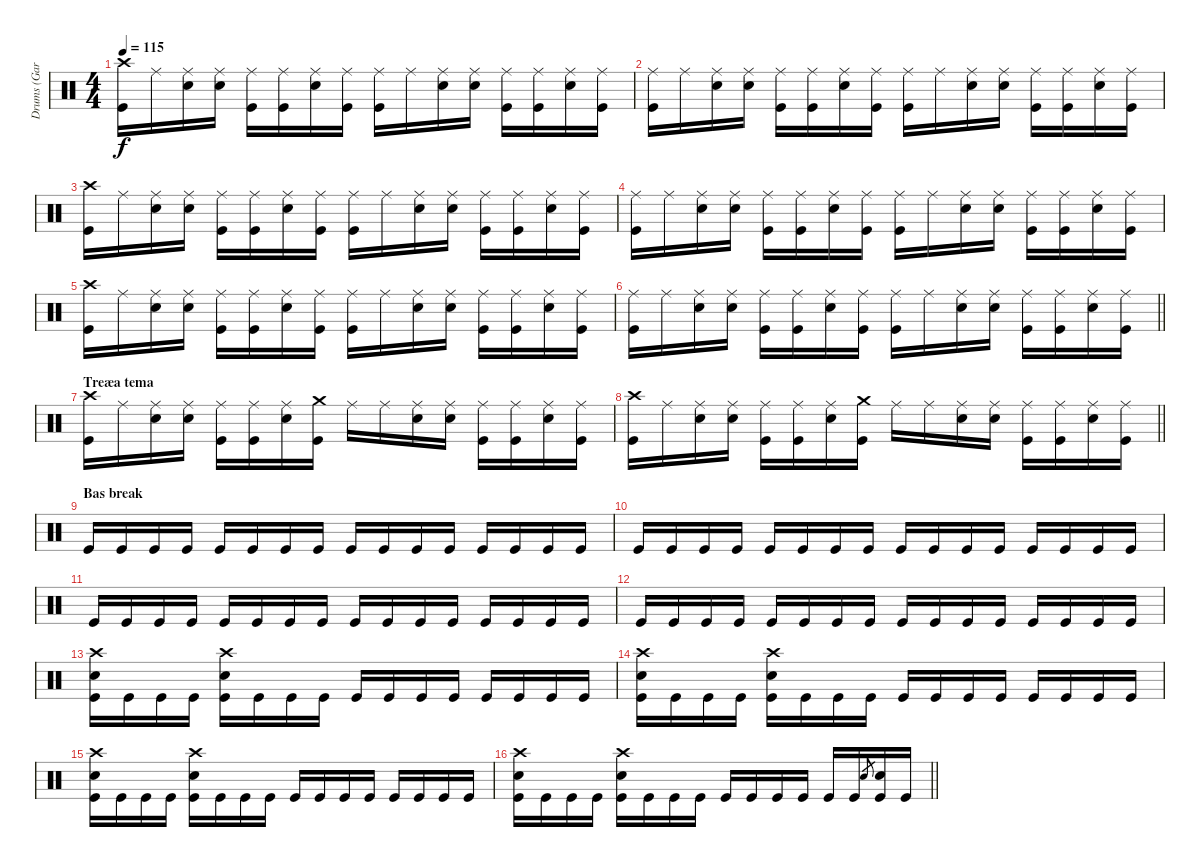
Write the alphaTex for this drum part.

\track ("Drums (Garabet Tavitjan)" "Drums (Gar") {instrument percussion}
\staff {score}
\articulation defaults
\ts (4 4)
\tempo 115
\clef neutral
\ks c
("Crash high (hit)" "Kick (hit)").16{dy f} "Ride (middle)".16 ("Ride (middle)" "Electric Snare (hit)").16 ("Ride (middle)" "Electric Snare (hit)").16 ("Ride (middle)" "Kick (hit)").16 ("Ride (middle)" "Kick (hit)").16 ("Ride (middle)" "Electric Snare (hit)").16 ("Ride (middle)" "Kick (hit)").16 ("Ride (middle)" "Kick (hit)").16 "Ride (middle)".16 ("Ride (middle)" "Electric Snare (hit)").16 ("Ride (middle)" "Electric Snare (hit)").16 ("Ride (middle)" "Kick (hit)").16 ("Ride (middle)" "Kick (hit)").16 ("Ride (middle)" "Electric Snare (hit)").16 ("Ride (middle)" "Kick (hit)").16 |
("Ride (middle)" "Kick (hit)").16 "Ride (middle)".16 ("Ride (middle)" "Electric Snare (hit)").16 ("Ride (middle)" "Electric Snare (hit)").16 ("Ride (middle)" "Kick (hit)").16 ("Ride (middle)" "Kick (hit)").16 ("Ride (middle)" "Electric Snare (hit)").16 ("Ride (middle)" "Kick (hit)").16 ("Ride (middle)" "Kick (hit)").16 "Ride (middle)".16 ("Ride (middle)" "Electric Snare (hit)").16 ("Ride (middle)" "Electric Snare (hit)").16 ("Ride (middle)" "Kick (hit)").16 ("Ride (middle)" "Kick (hit)").16 ("Ride (middle)" "Electric Snare (hit)").16 ("Ride (middle)" "Kick (hit)").16 |
("Crash high (hit)" "Kick (hit)").16 "Ride (middle)".16 ("Ride (middle)" "Electric Snare (hit)").16 ("Ride (middle)" "Electric Snare (hit)").16 ("Ride (middle)" "Kick (hit)").16 ("Ride (middle)" "Kick (hit)").16 ("Ride (middle)" "Electric Snare (hit)").16 ("Ride (middle)" "Kick (hit)").16 ("Ride (middle)" "Kick (hit)").16 "Ride (middle)".16 ("Ride (middle)" "Electric Snare (hit)").16 ("Ride (middle)" "Electric Snare (hit)").16 ("Ride (middle)" "Kick (hit)").16 ("Ride (middle)" "Kick (hit)").16 ("Ride (middle)" "Electric Snare (hit)").16 ("Ride (middle)" "Kick (hit)").16 |
("Ride (middle)" "Kick (hit)").16 "Ride (middle)".16 ("Ride (middle)" "Electric Snare (hit)").16 ("Ride (middle)" "Electric Snare (hit)").16 ("Ride (middle)" "Kick (hit)").16 ("Ride (middle)" "Kick (hit)").16 ("Ride (middle)" "Electric Snare (hit)").16 ("Ride (middle)" "Kick (hit)").16 ("Ride (middle)" "Kick (hit)").16 "Ride (middle)".16 ("Ride (middle)" "Electric Snare (hit)").16 ("Ride (middle)" "Electric Snare (hit)").16 ("Ride (middle)" "Kick (hit)").16 ("Ride (middle)" "Kick (hit)").16 ("Ride (middle)" "Electric Snare (hit)").16 ("Ride (middle)" "Kick (hit)").16 |
("Crash high (hit)" "Kick (hit)").16 "Ride (middle)".16 ("Ride (middle)" "Electric Snare (hit)").16 ("Ride (middle)" "Electric Snare (hit)").16 ("Ride (middle)" "Kick (hit)").16 ("Ride (middle)" "Kick (hit)").16 ("Ride (middle)" "Electric Snare (hit)").16 ("Ride (middle)" "Kick (hit)").16 ("Ride (middle)" "Kick (hit)").16 "Ride (middle)".16 ("Ride (middle)" "Electric Snare (hit)").16 ("Ride (middle)" "Electric Snare (hit)").16 ("Ride (middle)" "Kick (hit)").16 ("Ride (middle)" "Kick (hit)").16 ("Ride (middle)" "Electric Snare (hit)").16 ("Ride (middle)" "Kick (hit)").16 |
\barLineRight lightlight
("Ride (middle)" "Kick (hit)").16 "Ride (middle)".16 ("Ride (middle)" "Electric Snare (hit)").16 ("Ride (middle)" "Electric Snare (hit)").16 ("Ride (middle)" "Kick (hit)").16 ("Ride (middle)" "Kick (hit)").16 ("Ride (middle)" "Electric Snare (hit)").16 ("Ride (middle)" "Kick (hit)").16 ("Ride (middle)" "Kick (hit)").16 "Ride (middle)".16 ("Ride (middle)" "Electric Snare (hit)").16 ("Ride (middle)" "Electric Snare (hit)").16 ("Ride (middle)" "Kick (hit)").16 ("Ride (middle)" "Kick (hit)").16 ("Ride (middle)" "Electric Snare (hit)").16 ("Ride (middle)" "Kick (hit)").16 |
\section ("" "Treæa tema")
("Crash high (hit)" "Kick (hit)").16 "Ride (middle)".16 ("Ride (middle)" "Electric Snare (hit)").16 ("Ride (middle)" "Electric Snare (hit)").16 ("Ride (middle)" "Kick (hit)").16 ("Ride (middle)" "Kick (hit)").16 ("Ride (middle)" "Electric Snare (hit)").16 ("Crash medium (hit)" "Kick (hit)").16 "Ride (middle)".16 "Ride (middle)".16 ("Ride (middle)" "Electric Snare (hit)").16 ("Ride (middle)" "Electric Snare (hit)").16 ("Ride (middle)" "Kick (hit)").16 ("Ride (middle)" "Kick (hit)").16 ("Ride (middle)" "Electric Snare (hit)").16 ("Ride (middle)" "Kick (hit)").16 |
\barLineRight lightlight
("Crash high (hit)" "Kick (hit)").16 "Ride (middle)".16 ("Ride (middle)" "Electric Snare (hit)").16 ("Ride (middle)" "Electric Snare (hit)").16 ("Ride (middle)" "Kick (hit)").16 ("Ride (middle)" "Kick (hit)").16 ("Ride (middle)" "Electric Snare (hit)").16 ("Crash medium (hit)" "Kick (hit)").16 "Ride (middle)".16 "Ride (middle)".16 ("Ride (middle)" "Electric Snare (hit)").16 ("Ride (middle)" "Electric Snare (hit)").16 ("Ride (middle)" "Kick (hit)").16 ("Ride (middle)" "Kick (hit)").16 ("Ride (middle)" "Electric Snare (hit)").16 ("Ride (middle)" "Kick (hit)").16 |
\section ("" "Bas break")
"Kick (hit)".16 "Kick (hit)".16 "Kick (hit)".16 "Kick (hit)".16 "Kick (hit)".16 "Kick (hit)".16 "Kick (hit)".16 "Kick (hit)".16 "Kick (hit)".16 "Kick (hit)".16 "Kick (hit)".16 "Kick (hit)".16 "Kick (hit)".16 "Kick (hit)".16 "Kick (hit)".16 "Kick (hit)".16 |
"Kick (hit)".16 "Kick (hit)".16 "Kick (hit)".16 "Kick (hit)".16 "Kick (hit)".16 "Kick (hit)".16 "Kick (hit)".16 "Kick (hit)".16 "Kick (hit)".16 "Kick (hit)".16 "Kick (hit)".16 "Kick (hit)".16 "Kick (hit)".16 "Kick (hit)".16 "Kick (hit)".16 "Kick (hit)".16 |
"Kick (hit)".16 "Kick (hit)".16 "Kick (hit)".16 "Kick (hit)".16 "Kick (hit)".16 "Kick (hit)".16 "Kick (hit)".16 "Kick (hit)".16 "Kick (hit)".16 "Kick (hit)".16 "Kick (hit)".16 "Kick (hit)".16 "Kick (hit)".16 "Kick (hit)".16 "Kick (hit)".16 "Kick (hit)".16 |
"Kick (hit)".16 "Kick (hit)".16 "Kick (hit)".16 "Kick (hit)".16 "Kick (hit)".16 "Kick (hit)".16 "Kick (hit)".16 "Kick (hit)".16 "Kick (hit)".16 "Kick (hit)".16 "Kick (hit)".16 "Kick (hit)".16 "Kick (hit)".16 "Kick (hit)".16 "Kick (hit)".16 "Kick (hit)".16 |
("Crash high (hit)" "Electric Snare (hit)" "Kick (hit)").16 "Kick (hit)".16 "Kick (hit)".16 "Kick (hit)".16 ("Crash high (hit)" "Electric Snare (hit)" "Kick (hit)").16 "Kick (hit)".16 "Kick (hit)".16 "Kick (hit)".16 "Kick (hit)".16 "Kick (hit)".16 "Kick (hit)".16 "Kick (hit)".16 "Kick (hit)".16 "Kick (hit)".16 "Kick (hit)".16 "Kick (hit)".16 |
("Crash high (hit)" "Electric Snare (hit)" "Kick (hit)").16 "Kick (hit)".16 "Kick (hit)".16 "Kick (hit)".16 ("Crash high (hit)" "Electric Snare (hit)" "Kick (hit)").16 "Kick (hit)".16 "Kick (hit)".16 "Kick (hit)".16 "Kick (hit)".16 "Kick (hit)".16 "Kick (hit)".16 "Kick (hit)".16 "Kick (hit)".16 "Kick (hit)".16 "Kick (hit)".16 "Kick (hit)".16 |
("Crash high (hit)" "Electric Snare (hit)" "Kick (hit)").16 "Kick (hit)".16 "Kick (hit)".16 "Kick (hit)".16 ("Crash high (hit)" "Electric Snare (hit)" "Kick (hit)").16 "Kick (hit)".16 "Kick (hit)".16 "Kick (hit)".16 "Kick (hit)".16 "Kick (hit)".16 "Kick (hit)".16 "Kick (hit)".16 "Kick (hit)".16 "Kick (hit)".16 "Kick (hit)".16 "Kick (hit)".16 |
\barLineRight lightlight
("Crash high (hit)" "Electric Snare (hit)" "Kick (hit)").16 "Kick (hit)".16 "Kick (hit)".16 "Kick (hit)".16 ("Crash high (hit)" "Electric Snare (hit)" "Kick (hit)").16 "Kick (hit)".16 "Kick (hit)".16 "Kick (hit)".16 "Kick (hit)".16 "Kick (hit)".16 "Kick (hit)".16 "Kick (hit)".16 "Kick (hit)".16 "Kick (hit)".16 "Electric Snare (hit)".8{gr} ("Electric Snare (hit)" "Kick (hit)").16 "Kick (hit)".16
